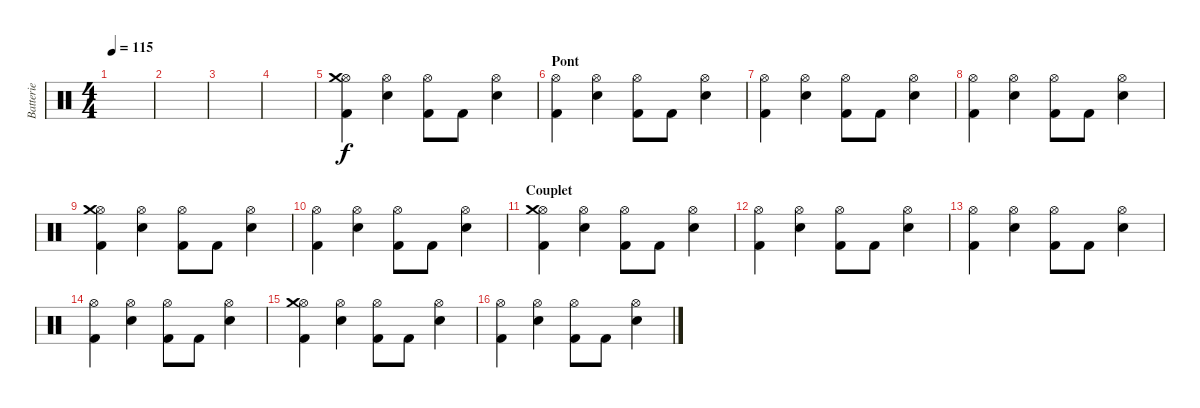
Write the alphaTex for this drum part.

\track ("Batterie" "Batterie") {instrument percussion}
\staff {score}
\articulation defaults
\ts (4 4)
\tempo 115
\clef neutral
\ks c
|
|
|
|
("Hi-Hat (open)" "Crash medium (hit)" "Kick (hit) 2").4 ("Hi-Hat (open)" "Snare (hit) 2").4 ("Hi-Hat (open)" "Kick (hit) 2").8 "Kick (hit) 2".8 ("Hi-Hat (open)" "Snare (hit) 2").4 |
\section ("" "Pont")
("Hi-Hat (open)" "Kick (hit) 2").4 ("Hi-Hat (open)" "Snare (hit) 2").4 ("Hi-Hat (open)" "Kick (hit) 2").8 "Kick (hit) 2".8 ("Hi-Hat (open)" "Snare (hit) 2").4 |
("Hi-Hat (open)" "Kick (hit) 2").4 ("Hi-Hat (open)" "Snare (hit) 2").4 ("Hi-Hat (open)" "Kick (hit) 2").8 "Kick (hit) 2".8 ("Hi-Hat (open)" "Snare (hit) 2").4 |
("Hi-Hat (open)" "Kick (hit) 2").4 ("Hi-Hat (open)" "Snare (hit) 2").4 ("Hi-Hat (open)" "Kick (hit) 2").8 "Kick (hit) 2".8 ("Hi-Hat (open)" "Snare (hit) 2").4 |
("Hi-Hat (open)" "Crash medium (hit)" "Kick (hit) 2").4 ("Hi-Hat (open)" "Snare (hit) 2").4 ("Hi-Hat (open)" "Kick (hit) 2").8 "Kick (hit) 2".8 ("Hi-Hat (open)" "Snare (hit) 2").4 |
("Hi-Hat (open)" "Kick (hit) 2").4 ("Hi-Hat (open)" "Snare (hit) 2").4 ("Hi-Hat (open)" "Kick (hit) 2").8 "Kick (hit) 2".8 ("Hi-Hat (open)" "Snare (hit) 2").4 |
\section ("" "Couplet")
("Hi-Hat (open)" "Crash medium (hit)" "Kick (hit) 2").4 ("Hi-Hat (open)" "Snare (hit) 2").4 ("Hi-Hat (open)" "Kick (hit) 2").8 "Kick (hit) 2".8 ("Hi-Hat (open)" "Snare (hit) 2").4 |
("Hi-Hat (open)" "Kick (hit) 2").4 ("Hi-Hat (open)" "Snare (hit) 2").4 ("Hi-Hat (open)" "Kick (hit) 2").8 "Kick (hit) 2".8 ("Hi-Hat (open)" "Snare (hit) 2").4 |
("Hi-Hat (open)" "Kick (hit) 2").4 ("Hi-Hat (open)" "Snare (hit) 2").4 ("Hi-Hat (open)" "Kick (hit) 2").8 "Kick (hit) 2".8 ("Hi-Hat (open)" "Snare (hit) 2").4 |
("Hi-Hat (open)" "Kick (hit) 2").4 ("Hi-Hat (open)" "Snare (hit) 2").4 ("Hi-Hat (open)" "Kick (hit) 2").8 "Kick (hit) 2".8 ("Hi-Hat (open)" "Snare (hit) 2").4 |
("Hi-Hat (open)" "Crash medium (hit)" "Kick (hit) 2").4 ("Hi-Hat (open)" "Snare (hit) 2").4 ("Hi-Hat (open)" "Kick (hit) 2").8 "Kick (hit) 2".8 ("Hi-Hat (open)" "Snare (hit) 2").4 |
("Hi-Hat (open)" "Kick (hit) 2").4 ("Hi-Hat (open)" "Snare (hit) 2").4 ("Hi-Hat (open)" "Kick (hit) 2").8 "Kick (hit) 2".8 ("Hi-Hat (open)" "Snare (hit) 2").4
